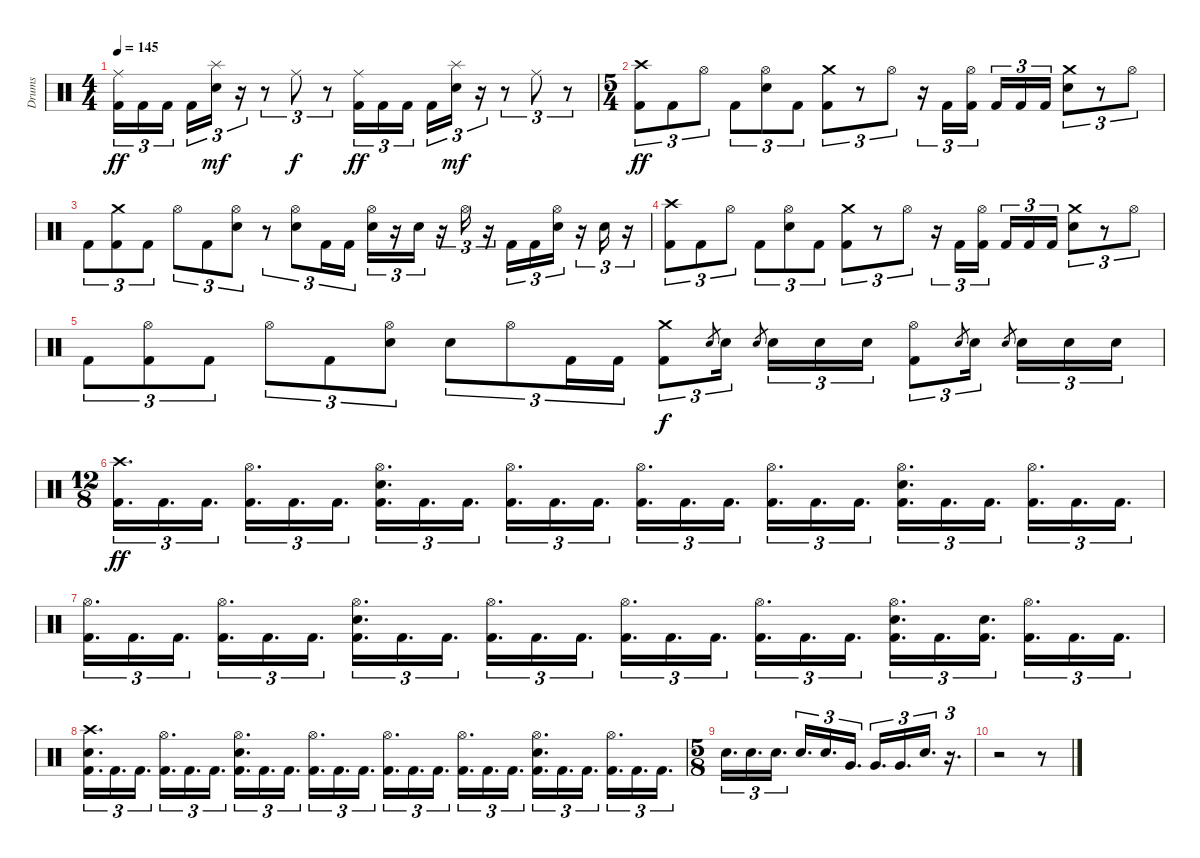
\track ("Drums" "Drums") {instrument percussion}
\staff {score}
\articulation defaults
\ts (4 4)
\tempo 145
\clef neutral
\ks c
("Ride (middle)" "Kick (hit) 2").16{tu (3 2) dy ff} "Kick (hit) 2".16{tu (3 2)} "Kick (hit) 2".16{tu (3 2) beam splitsecondary} "Kick (hit) 2".16{tu (3 2)} ("Splash (hit)" "Electric Snare (hit)").16{tu (3 2) dy mf} r.16{tu (3 2)} r.8{tu (3 2)} "Ride (middle)".8{tu (3 2) dy f} r.8{tu (3 2)} ("Ride (middle)" "Kick (hit) 2").16{tu (3 2) dy ff} "Kick (hit) 2".16{tu (3 2)} "Kick (hit) 2".16{tu (3 2) beam splitsecondary} "Kick (hit) 2".16{tu (3 2)} ("Splash (hit)" "Electric Snare (hit)").16{tu (3 2) dy mf} r.16{tu (3 2)} r.8{tu (3 2)} "Ride (middle)".8{tu (3 2)} r.8{tu (3 2)} |
\ts (5 4)
("Crash high (hit)" "Kick (hit) 2").8{tu (3 2) dy ff} "Kick (hit) 2".8{tu (3 2)} "Hi-Hat (open)".8{tu (3 2)} "Kick (hit) 2".8{tu (3 2)} ("Hi-Hat (open)" "Electric Snare (hit)").8{tu (3 2)} "Kick (hit) 2".8{tu (3 2)} ("Crash medium (hit)" "Kick (hit) 2").8{tu (3 2)} r.8{tu (3 2)} "Hi-Hat (open)".8{tu (3 2)} r.16{tu (3 2)} "Kick (hit) 2".16{tu (3 2)} ("Hi-Hat (open)" "Kick (hit) 2").16{tu (3 2) beam splitsecondary} "Kick (hit) 2".16{tu (3 2)} "Kick (hit) 2".16{tu (3 2)} "Kick (hit) 2".16{tu (3 2)} ("Crash medium (hit)" "Electric Snare (hit)").8{tu (3 2)} r.8{tu (3 2)} "Hi-Hat (open)".8{tu (3 2)} |
"Kick (hit) 2".8{tu (3 2)} ("Crash medium (hit)" "Kick (hit) 2").8{tu (3 2)} "Kick (hit) 2".8{tu (3 2)} "Hi-Hat (open)".8{tu (3 2)} "Kick (hit) 2".8{tu (3 2)} ("Hi-Hat (open)" "Electric Snare (hit)").8{tu (3 2)} r.8{tu (3 2)} ("Hi-Hat (open)" "Electric Snare (hit)").8{tu (3 2)} "Kick (hit) 2".16{tu (3 2)} "Kick (hit) 2".16{tu (3 2)} ("Hi-Hat (open)" "Electric Snare (hit)").16{tu (3 2)} r.16{tu (3 2)} "Electric Snare (hit)".16{tu (3 2)} r.16{tu (3 2)} "Hi-Hat (open)".16{tu (3 2)} r.16{tu (3 2)} "Kick (hit) 2".16{tu (3 2)} "Kick (hit) 2".16{tu (3 2)} ("Hi-Hat (open)" "Electric Snare (hit)").16{tu (3 2)} r.16{tu (3 2)} "Electric Snare (hit)".16{tu (3 2)} r.16{tu (3 2)} |
("Crash high (hit)" "Kick (hit) 2").8{tu (3 2)} "Kick (hit) 2".8{tu (3 2)} "Hi-Hat (open)".8{tu (3 2)} "Kick (hit) 2".8{tu (3 2)} ("Hi-Hat (open)" "Electric Snare (hit)").8{tu (3 2)} "Kick (hit) 2".8{tu (3 2)} ("Crash medium (hit)" "Kick (hit) 2").8{tu (3 2)} r.8{tu (3 2)} "Hi-Hat (open)".8{tu (3 2)} r.16{tu (3 2)} "Kick (hit) 2".16{tu (3 2)} ("Hi-Hat (open)" "Kick (hit) 2").16{tu (3 2) beam splitsecondary} "Kick (hit) 2".16{tu (3 2)} "Kick (hit) 2".16{tu (3 2)} "Kick (hit) 2".16{tu (3 2)} ("Crash medium (hit)" "Electric Snare (hit)").8{tu (3 2)} r.8{tu (3 2)} "Hi-Hat (open)".8{tu (3 2)} |
"Kick (hit) 2".8{tu (3 2)} ("Hi-Hat (open)" "Kick (hit) 2").8{tu (3 2)} "Kick (hit) 2".8{tu (3 2)} "Hi-Hat (open)".8{tu (3 2)} "Kick (hit) 2".8{tu (3 2)} ("Hi-Hat (open)" "Electric Snare (hit)").8{tu (3 2)} "Electric Snare (hit)".8{tu (3 2)} "Hi-Hat (open)".8{tu (3 2)} "Kick (hit) 2".16{tu (3 2)} "Kick (hit) 2".16{tu (3 2)} ("Crash medium (hit)" "Kick (hit) 2").8{tu (3 2) dy f} "Electric Snare (hit)".8{gr} "Electric Snare (hit)".16{tu (3 2)} "Electric Snare (hit)".8{gr beam splitsecondary} "Electric Snare (hit)".16{tu (3 2)} "Electric Snare (hit)".16{tu (3 2)} "Electric Snare (hit)".16{tu (3 2)} ("Hi-Hat (open)" "Kick (hit) 2").8{tu (3 2)} "Electric Snare (hit)".8{gr} "Electric Snare (hit)".16{tu (3 2)} "Electric Snare (hit)".8{gr beam splitsecondary} "Electric Snare (hit)".16{tu (3 2)} "Electric Snare (hit)".16{tu (3 2)} "Electric Snare (hit)".16{tu (3 2)} |
\ts (12 8)
("Crash high (hit)" "Kick (hit) 2").16{d tu (3 2) dy ff} "Kick (hit) 2".16{d tu (3 2)} "Kick (hit) 2".16{d tu (3 2)} ("Hi-Hat (open)" "Kick (hit) 2").16{d tu (3 2)} "Kick (hit) 2".16{d tu (3 2)} "Kick (hit) 2".16{d tu (3 2)} ("Hi-Hat (open)" "Electric Snare (hit)" "Kick (hit) 2").16{d tu (3 2)} "Kick (hit) 2".16{d tu (3 2)} "Kick (hit) 2".16{d tu (3 2)} ("Hi-Hat (open)" "Kick (hit) 2").16{d tu (3 2)} "Kick (hit) 2".16{d tu (3 2)} "Kick (hit) 2".16{d tu (3 2)} ("Hi-Hat (open)" "Kick (hit) 2").16{d tu (3 2)} "Kick (hit) 2".16{d tu (3 2)} "Kick (hit) 2".16{d tu (3 2)} ("Hi-Hat (open)" "Kick (hit) 2").16{d tu (3 2)} "Kick (hit) 2".16{d tu (3 2)} "Kick (hit) 2".16{d tu (3 2)} ("Hi-Hat (open)" "Electric Snare (hit)" "Kick (hit) 2").16{d tu (3 2)} "Kick (hit) 2".16{d tu (3 2)} "Kick (hit) 2".16{d tu (3 2)} ("Hi-Hat (open)" "Kick (hit) 2").16{d tu (3 2)} "Kick (hit) 2".16{d tu (3 2)} "Kick (hit) 2".16{d tu (3 2)} |
("Hi-Hat (open)" "Kick (hit) 2").16{d tu (3 2)} "Kick (hit) 2".16{d tu (3 2)} "Kick (hit) 2".16{d tu (3 2)} ("Hi-Hat (open)" "Kick (hit) 2").16{d tu (3 2)} "Kick (hit) 2".16{d tu (3 2)} "Kick (hit) 2".16{d tu (3 2)} ("Hi-Hat (open)" "Electric Snare (hit)" "Kick (hit) 2").16{d tu (3 2)} "Kick (hit) 2".16{d tu (3 2)} "Kick (hit) 2".16{d tu (3 2)} ("Hi-Hat (open)" "Kick (hit) 2").16{d tu (3 2)} "Kick (hit) 2".16{d tu (3 2)} "Kick (hit) 2".16{d tu (3 2)} ("Hi-Hat (open)" "Kick (hit) 2").16{d tu (3 2)} "Kick (hit) 2".16{d tu (3 2)} "Kick (hit) 2".16{d tu (3 2)} ("Hi-Hat (open)" "Kick (hit) 2").16{d tu (3 2)} "Kick (hit) 2".16{d tu (3 2)} "Kick (hit) 2".16{d tu (3 2)} ("Hi-Hat (open)" "Electric Snare (hit)" "Kick (hit) 2").16{d tu (3 2)} "Kick (hit) 2".16{d tu (3 2)} ("Electric Snare (hit)" "Kick (hit) 2").16{d tu (3 2)} ("Hi-Hat (open)" "Kick (hit) 2").16{d tu (3 2)} "Kick (hit) 2".16{d tu (3 2)} "Kick (hit) 2".16{d tu (3 2)} |
("Crash high (hit)" "Electric Snare (hit)" "Kick (hit) 2").16{d tu (3 2)} "Kick (hit) 2".16{d tu (3 2)} "Kick (hit) 2".16{d tu (3 2)} ("Hi-Hat (open)" "Kick (hit) 2").16{d tu (3 2)} "Kick (hit) 2".16{d tu (3 2)} "Kick (hit) 2".16{d tu (3 2)} ("Hi-Hat (open)" "Electric Snare (hit)" "Kick (hit) 2").16{d tu (3 2)} "Kick (hit) 2".16{d tu (3 2)} "Kick (hit) 2".16{d tu (3 2)} ("Hi-Hat (open)" "Kick (hit) 2").16{d tu (3 2)} "Kick (hit) 2".16{d tu (3 2)} "Kick (hit) 2".16{d tu (3 2)} ("Hi-Hat (open)" "Kick (hit) 2").16{d tu (3 2)} "Kick (hit) 2".16{d tu (3 2)} "Kick (hit) 2".16{d tu (3 2)} ("Hi-Hat (open)" "Kick (hit) 2").16{d tu (3 2)} "Kick (hit) 2".16{d tu (3 2)} "Kick (hit) 2".16{d tu (3 2)} ("Hi-Hat (open)" "Electric Snare (hit)" "Kick (hit) 2").16{d tu (3 2)} "Kick (hit) 2".16{d tu (3 2)} "Kick (hit) 2".16{d tu (3 2)} ("Hi-Hat (open)" "Kick (hit) 2").16{d tu (3 2)} "Kick (hit) 2".16{d tu (3 2)} "Kick (hit) 2".16{d tu (3 2)} |
\ts (5 8)
"Electric Snare (hit)".16{d tu (3 2)} "Electric Snare (hit)".16{d tu (3 2)} "Electric Snare (hit)".16{d tu (3 2)} "Electric Snare (hit)".16{d tu (3 2)} "Electric Snare (hit)".16{d tu (3 2)} "Very Low Tom (hit)".16{d tu (3 2)} "Very Low Tom (hit)".16{d tu (3 2)} "Very Low Tom (hit)".16{d tu (3 2)} "Electric Snare (hit)".16{d tu (3 2)} r.16{d tu (3 2)} |
r.2 r.8
